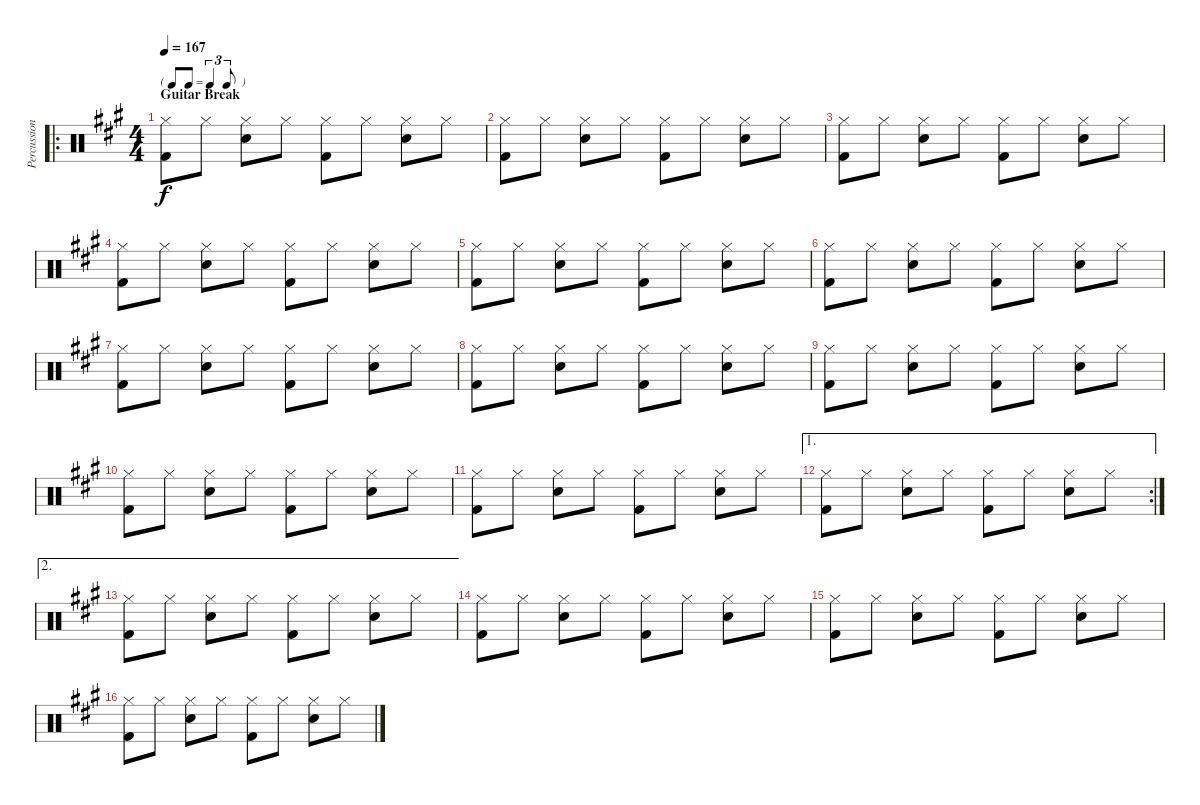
\track ("Percussion" "Percussion") {instrument percussion}
\staff {score}
\articulation defaults
\ro
\ts (4 4)
\tf triplet8th
\section ("" "Guitar Break")
\tempo 167
\clef neutral
\ks a
("Hi-Hat (closed)" "Kick (hit) 2").8{dy f} "Hi-Hat (closed)".8 ("Hi-Hat (closed)" "Snare (hit) 2").8 "Hi-Hat (closed)".8 ("Hi-Hat (closed)" "Kick (hit) 2").8 "Hi-Hat (closed)".8 ("Hi-Hat (closed)" "Snare (hit) 2").8 "Hi-Hat (closed)".8 |
("Hi-Hat (closed)" "Kick (hit) 2").8 "Hi-Hat (closed)".8 ("Hi-Hat (closed)" "Snare (hit) 2").8 "Hi-Hat (closed)".8 ("Hi-Hat (closed)" "Kick (hit) 2").8 "Hi-Hat (closed)".8 ("Hi-Hat (closed)" "Snare (hit) 2").8 "Hi-Hat (closed)".8 |
("Hi-Hat (closed)" "Kick (hit) 2").8 "Hi-Hat (closed)".8 ("Hi-Hat (closed)" "Snare (hit) 2").8 "Hi-Hat (closed)".8 ("Hi-Hat (closed)" "Kick (hit) 2").8 "Hi-Hat (closed)".8 ("Hi-Hat (closed)" "Snare (hit) 2").8 "Hi-Hat (closed)".8 |
("Hi-Hat (closed)" "Kick (hit) 2").8 "Hi-Hat (closed)".8 ("Hi-Hat (closed)" "Snare (hit) 2").8 "Hi-Hat (closed)".8 ("Hi-Hat (closed)" "Kick (hit) 2").8 "Hi-Hat (closed)".8 ("Hi-Hat (closed)" "Snare (hit) 2").8 "Hi-Hat (closed)".8 |
("Hi-Hat (closed)" "Kick (hit) 2").8 "Hi-Hat (closed)".8 ("Hi-Hat (closed)" "Snare (hit) 2").8 "Hi-Hat (closed)".8 ("Hi-Hat (closed)" "Kick (hit) 2").8 "Hi-Hat (closed)".8 ("Hi-Hat (closed)" "Snare (hit) 2").8 "Hi-Hat (closed)".8 |
("Hi-Hat (closed)" "Kick (hit) 2").8 "Hi-Hat (closed)".8 ("Hi-Hat (closed)" "Snare (hit) 2").8 "Hi-Hat (closed)".8 ("Hi-Hat (closed)" "Kick (hit) 2").8 "Hi-Hat (closed)".8 ("Hi-Hat (closed)" "Snare (hit) 2").8 "Hi-Hat (closed)".8 |
("Hi-Hat (closed)" "Kick (hit) 2").8 "Hi-Hat (closed)".8 ("Hi-Hat (closed)" "Snare (hit) 2").8 "Hi-Hat (closed)".8 ("Hi-Hat (closed)" "Kick (hit) 2").8 "Hi-Hat (closed)".8 ("Hi-Hat (closed)" "Snare (hit) 2").8 "Hi-Hat (closed)".8 |
("Hi-Hat (closed)" "Kick (hit) 2").8 "Hi-Hat (closed)".8 ("Hi-Hat (closed)" "Snare (hit) 2").8 "Hi-Hat (closed)".8 ("Hi-Hat (closed)" "Kick (hit) 2").8 "Hi-Hat (closed)".8 ("Hi-Hat (closed)" "Snare (hit) 2").8 "Hi-Hat (closed)".8 |
("Hi-Hat (closed)" "Kick (hit) 2").8 "Hi-Hat (closed)".8 ("Hi-Hat (closed)" "Snare (hit) 2").8 "Hi-Hat (closed)".8 ("Hi-Hat (closed)" "Kick (hit) 2").8 "Hi-Hat (closed)".8 ("Hi-Hat (closed)" "Snare (hit) 2").8 "Hi-Hat (closed)".8 |
("Hi-Hat (closed)" "Kick (hit) 2").8 "Hi-Hat (closed)".8 ("Hi-Hat (closed)" "Snare (hit) 2").8 "Hi-Hat (closed)".8 ("Hi-Hat (closed)" "Kick (hit) 2").8 "Hi-Hat (closed)".8 ("Hi-Hat (closed)" "Snare (hit) 2").8 "Hi-Hat (closed)".8 |
("Hi-Hat (closed)" "Kick (hit) 2").8 "Hi-Hat (closed)".8 ("Hi-Hat (closed)" "Snare (hit) 2").8 "Hi-Hat (closed)".8 ("Hi-Hat (closed)" "Kick (hit) 2").8 "Hi-Hat (closed)".8 ("Hi-Hat (closed)" "Snare (hit) 2").8 "Hi-Hat (closed)".8 |
\ae 1
\rc 2
("Hi-Hat (closed)" "Kick (hit) 2").8 "Hi-Hat (closed)".8 ("Hi-Hat (closed)" "Snare (hit) 2").8 "Hi-Hat (closed)".8 ("Hi-Hat (closed)" "Kick (hit) 2").8 "Hi-Hat (closed)".8 ("Hi-Hat (closed)" "Snare (hit) 2").8 "Hi-Hat (closed)".8 |
\ae 2
("Hi-Hat (closed)" "Kick (hit) 2").8 "Hi-Hat (closed)".8 ("Hi-Hat (closed)" "Snare (hit) 2").8 "Hi-Hat (closed)".8 ("Hi-Hat (closed)" "Kick (hit) 2").8 "Hi-Hat (closed)".8 ("Hi-Hat (closed)" "Snare (hit) 2").8 "Hi-Hat (closed)".8 |
("Hi-Hat (closed)" "Kick (hit) 2").8 "Hi-Hat (closed)".8 ("Hi-Hat (closed)" "Snare (hit) 2").8 "Hi-Hat (closed)".8 ("Hi-Hat (closed)" "Kick (hit) 2").8 "Hi-Hat (closed)".8 ("Hi-Hat (closed)" "Snare (hit) 2").8 "Hi-Hat (closed)".8 |
("Hi-Hat (closed)" "Kick (hit) 2").8 "Hi-Hat (closed)".8 ("Hi-Hat (closed)" "Snare (hit) 2").8 "Hi-Hat (closed)".8 ("Hi-Hat (closed)" "Kick (hit) 2").8 "Hi-Hat (closed)".8 ("Hi-Hat (closed)" "Snare (hit) 2").8 "Hi-Hat (closed)".8 |
("Hi-Hat (closed)" "Kick (hit) 2").8 "Hi-Hat (closed)".8 ("Hi-Hat (closed)" "Snare (hit) 2").8 "Hi-Hat (closed)".8 ("Hi-Hat (closed)" "Kick (hit) 2").8 "Hi-Hat (closed)".8 ("Hi-Hat (closed)" "Snare (hit) 2").8 "Hi-Hat (closed)".8
